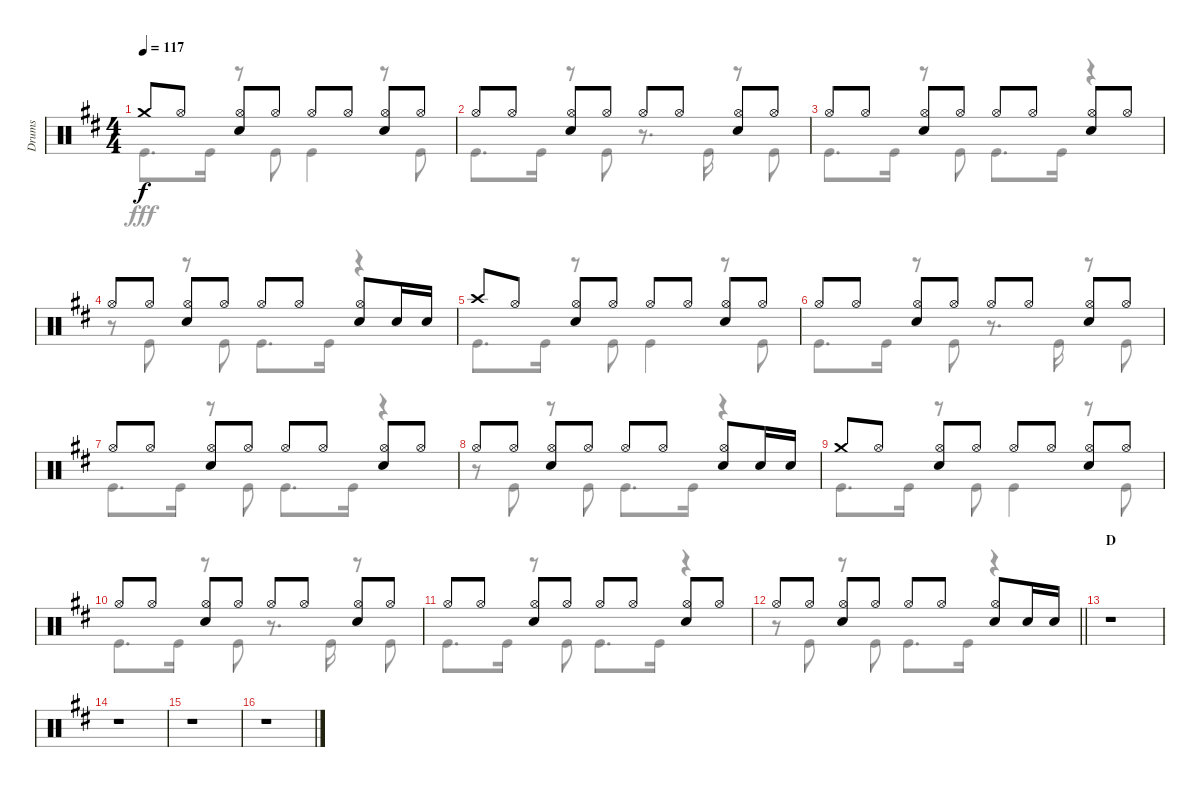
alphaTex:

\track ("Drums" "Drums") {instrument percussion}
\staff {score}
\articulation defaults
\voice
\ts (4 4)
\tempo 117
\clef neutral
\ks d "Crash medium (hit)".8{dy f} "Hi-Hat (open)".8
("Hi-Hat (open)" "Snare (hit) 2").8 "Hi-Hat (open)".8 "Hi-Hat (open)".8 "Hi-Hat (open)".8 ("Hi-Hat (open)" "Snare (hit) 2").8 "Hi-Hat (open)".8 |
"Hi-Hat (open)".8 "Hi-Hat (open)".8 ("Hi-Hat (open)" "Snare (hit) 2").8 "Hi-Hat (open)".8 "Hi-Hat (open)".8 "Hi-Hat (open)".8 ("Hi-Hat (open)" "Snare (hit) 2").8 "Hi-Hat (open)".8 |
"Hi-Hat (open)".8 "Hi-Hat (open)".8 ("Hi-Hat (open)" "Snare (hit) 2").8 "Hi-Hat (open)".8 "Hi-Hat (open)".8 "Hi-Hat (open)".8 ("Hi-Hat (open)" "Snare (hit) 2").8 "Hi-Hat (open)".8 |
"Hi-Hat (open)".8 "Hi-Hat (open)".8 ("Hi-Hat (open)" "Snare (hit) 2").8 "Hi-Hat (open)".8 "Hi-Hat (open)".8 "Hi-Hat (open)".8 ("Hi-Hat (open)" "Snare (hit) 2").8 "Snare (hit) 2".16 "Snare (hit) 2".16 |
"Crash high (hit)".8 "Hi-Hat (open)".8 ("Hi-Hat (open)" "Snare (hit) 2").8 "Hi-Hat (open)".8 "Hi-Hat (open)".8 "Hi-Hat (open)".8 ("Hi-Hat (open)" "Snare (hit) 2").8 "Hi-Hat (open)".8 |
"Hi-Hat (open)".8 "Hi-Hat (open)".8 ("Hi-Hat (open)" "Snare (hit) 2").8 "Hi-Hat (open)".8 "Hi-Hat (open)".8 "Hi-Hat (open)".8 ("Hi-Hat (open)" "Snare (hit) 2").8 "Hi-Hat (open)".8 |
"Hi-Hat (open)".8 "Hi-Hat (open)".8 ("Hi-Hat (open)" "Snare (hit) 2").8 "Hi-Hat (open)".8 "Hi-Hat (open)".8 "Hi-Hat (open)".8 ("Hi-Hat (open)" "Snare (hit) 2").8 "Hi-Hat (open)".8 |
"Hi-Hat (open)".8 "Hi-Hat (open)".8 ("Hi-Hat (open)" "Snare (hit) 2").8 "Hi-Hat (open)".8 "Hi-Hat (open)".8 "Hi-Hat (open)".8 ("Hi-Hat (open)" "Snare (hit) 2").8 "Snare (hit) 2".16 "Snare (hit) 2".16 |
"Crash medium (hit)".8 "Hi-Hat (open)".8 ("Hi-Hat (open)" "Snare (hit) 2").8 "Hi-Hat (open)".8 "Hi-Hat (open)".8 "Hi-Hat (open)".8 ("Hi-Hat (open)" "Snare (hit) 2").8 "Hi-Hat (open)".8 |
"Hi-Hat (open)".8 "Hi-Hat (open)".8 ("Hi-Hat (open)" "Snare (hit) 2").8 "Hi-Hat (open)".8 "Hi-Hat (open)".8 "Hi-Hat (open)".8 ("Hi-Hat (open)" "Snare (hit) 2").8 "Hi-Hat (open)".8 |
"Hi-Hat (open)".8 "Hi-Hat (open)".8 ("Hi-Hat (open)" "Snare (hit) 2").8 "Hi-Hat (open)".8 "Hi-Hat (open)".8 "Hi-Hat (open)".8 ("Hi-Hat (open)" "Snare (hit) 2").8 "Hi-Hat (open)".8 |
\barLineRight lightlight "Hi-Hat (open)".8 "Hi-Hat (open)".8
("Hi-Hat (open)" "Snare (hit) 2").8 "Hi-Hat (open)".8 "Hi-Hat (open)".8 "Hi-Hat (open)".8 ("Hi-Hat (open)" "Snare (hit) 2").8 "Snare (hit) 2".16 "Snare (hit) 2".16 |
\section ("" "D")
r.1 |
r.1 |
r.1 |
r.1
\voice
\clef neutral
\ottava regular
\simile none
\ks d "Kick (hit)".8{d dy fff} "Kick (hit)".16
r.8 "Kick (hit)".8 "Kick (hit)".4 r.8 "Kick (hit)".8 |
"Kick (hit)".8{d} "Kick (hit)".16 r.8 "Kick (hit)".8 r.8{d} "Kick (hit)".16 r.8 "Kick (hit)".8 |
"Kick (hit)".8{d} "Kick (hit)".16 r.8 "Kick (hit)".8 "Kick (hit)".8{d} "Kick (hit)".16 r.4 |
r.8 "Kick (hit)".8 r.8 "Kick (hit)".8 "Kick (hit)".8{d} "Kick (hit)".16 r.4 |
"Kick (hit)".8{d} "Kick (hit)".16 r.8 "Kick (hit)".8 "Kick (hit)".4 r.8 "Kick (hit)".8 |
"Kick (hit)".8{d} "Kick (hit)".16 r.8 "Kick (hit)".8 r.8{d} "Kick (hit)".16 r.8 "Kick (hit)".8 |
"Kick (hit)".8{d} "Kick (hit)".16 r.8 "Kick (hit)".8 "Kick (hit)".8{d} "Kick (hit)".16 r.4 |
r.8 "Kick (hit)".8 r.8 "Kick (hit)".8 "Kick (hit)".8{d} "Kick (hit)".16 r.4 |
"Kick (hit)".8{d} "Kick (hit)".16 r.8 "Kick (hit)".8 "Kick (hit)".4 r.8 "Kick (hit)".8 |
"Kick (hit)".8{d} "Kick (hit)".16 r.8 "Kick (hit)".8 r.8{d} "Kick (hit)".16 r.8 "Kick (hit)".8 |
"Kick (hit)".8{d} "Kick (hit)".16 r.8 "Kick (hit)".8 "Kick (hit)".8{d} "Kick (hit)".16 r.4 |
\barLineRight lightlight
r.8 "Kick (hit)".8 r.8 "Kick (hit)".8 "Kick (hit)".8{d} "Kick (hit)".16 r.4 |
r.1 |
r.1 |
r.1 |
r.1
